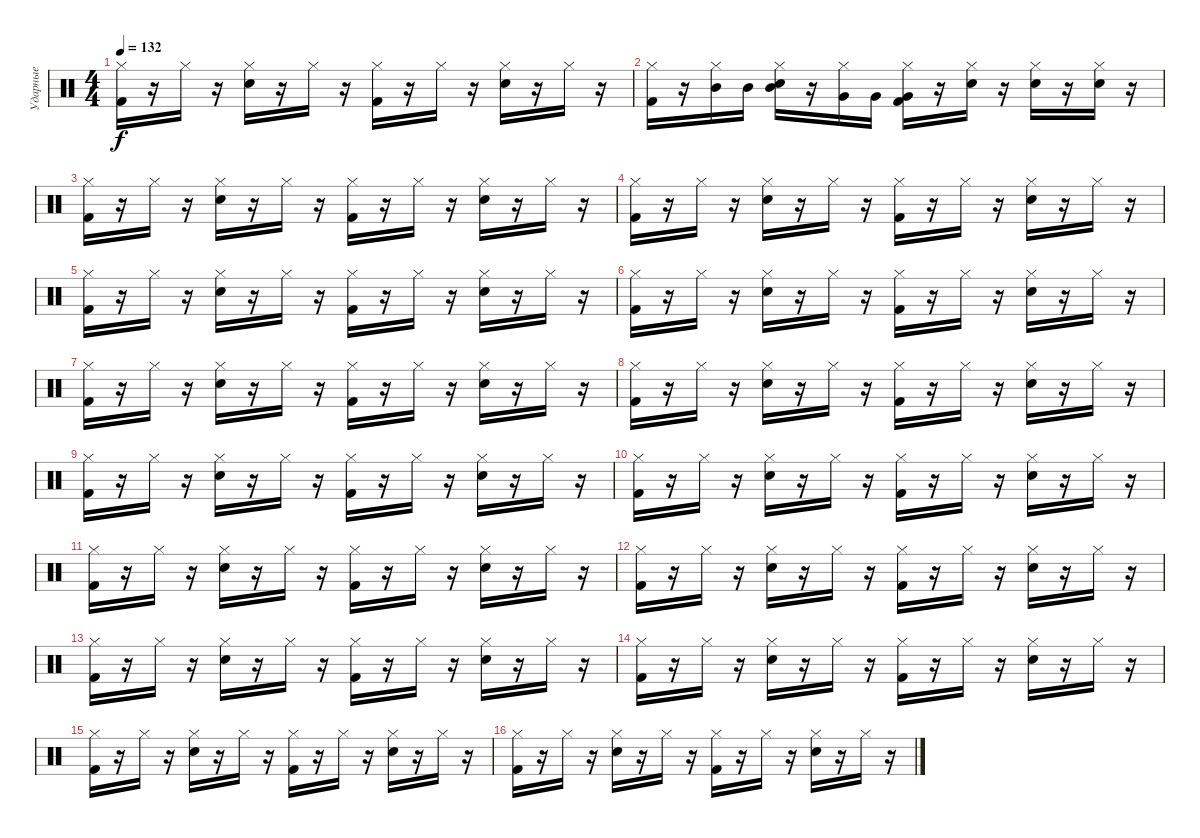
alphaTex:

\track ("Ударные" "Ударные") {instrument percussion}
\staff {score}
\articulation defaults
\ts (4 4)
\tempo 132
\clef neutral
\ks c
("Kick (hit) 2" "Hi-Hat (closed)").16{dy f} r.16 "Hi-Hat (closed)".16 r.16 ("Snare (hit) 2" "Hi-Hat (closed)").16 r.16 "Hi-Hat (closed)".16 r.16 ("Kick (hit) 2" "Hi-Hat (closed)").16 r.16 "Hi-Hat (closed)".16 r.16 ("Snare (hit) 2" "Hi-Hat (closed)").16 r.16 "Hi-Hat (closed)".16 r.16 |
("Kick (hit) 2" "Hi-Hat (closed)").16 r.16 ("Mid Tom (hit)" "Hi-Hat (closed)").16 "Mid Tom (hit)".16 ("Snare (hit) 2" "Mid Tom (hit)" "Hi-Hat (closed)").16 r.16 ("Very Low Tom (hit)" "Hi-Hat (closed)").16 "Very Low Tom (hit)".16 ("Kick (hit) 2" "Very Low Tom (hit)" "Hi-Hat (closed)").16 r.16 ("Snare (hit) 2" "Hi-Hat (closed)").16 r.16 ("Snare (hit) 2" "Hi-Hat (closed)").16 r.16 ("Snare (hit) 2" "Hi-Hat (closed)").16 r.16 |
("Kick (hit) 2" "Hi-Hat (closed)").16 r.16 "Hi-Hat (closed)".16 r.16 ("Snare (hit) 2" "Hi-Hat (closed)").16 r.16 "Hi-Hat (closed)".16 r.16 ("Kick (hit) 2" "Hi-Hat (closed)").16 r.16 "Hi-Hat (closed)".16 r.16 ("Snare (hit) 2" "Hi-Hat (closed)").16 r.16 "Hi-Hat (closed)".16 r.16 |
("Kick (hit) 2" "Hi-Hat (closed)").16 r.16 "Hi-Hat (closed)".16 r.16 ("Snare (hit) 2" "Hi-Hat (closed)").16 r.16 "Hi-Hat (closed)".16 r.16 ("Kick (hit) 2" "Hi-Hat (closed)").16 r.16 "Hi-Hat (closed)".16 r.16 ("Snare (hit) 2" "Hi-Hat (closed)").16 r.16 "Hi-Hat (closed)".16 r.16 |
("Kick (hit) 2" "Hi-Hat (closed)").16 r.16 "Hi-Hat (closed)".16 r.16 ("Snare (hit) 2" "Hi-Hat (closed)").16 r.16 "Hi-Hat (closed)".16 r.16 ("Kick (hit) 2" "Hi-Hat (closed)").16 r.16 "Hi-Hat (closed)".16 r.16 ("Snare (hit) 2" "Hi-Hat (closed)").16 r.16 "Hi-Hat (closed)".16 r.16 |
("Kick (hit) 2" "Hi-Hat (closed)").16 r.16 "Hi-Hat (closed)".16 r.16 ("Snare (hit) 2" "Hi-Hat (closed)").16 r.16 "Hi-Hat (closed)".16 r.16 ("Kick (hit) 2" "Hi-Hat (closed)").16 r.16 "Hi-Hat (closed)".16 r.16 ("Snare (hit) 2" "Hi-Hat (closed)").16 r.16 "Hi-Hat (closed)".16 r.16 |
("Kick (hit) 2" "Hi-Hat (closed)").16 r.16 "Hi-Hat (closed)".16 r.16 ("Snare (hit) 2" "Hi-Hat (closed)").16 r.16 "Hi-Hat (closed)".16 r.16 ("Kick (hit) 2" "Hi-Hat (closed)").16 r.16 "Hi-Hat (closed)".16 r.16 ("Snare (hit) 2" "Hi-Hat (closed)").16 r.16 "Hi-Hat (closed)".16 r.16 |
("Kick (hit) 2" "Hi-Hat (closed)").16 r.16 "Hi-Hat (closed)".16 r.16 ("Snare (hit) 2" "Hi-Hat (closed)").16 r.16 "Hi-Hat (closed)".16 r.16 ("Kick (hit) 2" "Hi-Hat (closed)").16 r.16 "Hi-Hat (closed)".16 r.16 ("Snare (hit) 2" "Hi-Hat (closed)").16 r.16 "Hi-Hat (closed)".16 r.16 |
("Kick (hit) 2" "Hi-Hat (closed)").16 r.16 "Hi-Hat (closed)".16 r.16 ("Snare (hit) 2" "Hi-Hat (closed)").16 r.16 "Hi-Hat (closed)".16 r.16 ("Kick (hit) 2" "Hi-Hat (closed)").16 r.16 "Hi-Hat (closed)".16 r.16 ("Snare (hit) 2" "Hi-Hat (closed)").16 r.16 "Hi-Hat (closed)".16 r.16 |
("Kick (hit) 2" "Hi-Hat (closed)").16 r.16 "Hi-Hat (closed)".16 r.16 ("Snare (hit) 2" "Hi-Hat (closed)").16 r.16 "Hi-Hat (closed)".16 r.16 ("Kick (hit) 2" "Hi-Hat (closed)").16 r.16 "Hi-Hat (closed)".16 r.16 ("Snare (hit) 2" "Hi-Hat (closed)").16 r.16 "Hi-Hat (closed)".16 r.16 |
("Kick (hit) 2" "Hi-Hat (closed)").16 r.16 "Hi-Hat (closed)".16 r.16 ("Snare (hit) 2" "Hi-Hat (closed)").16 r.16 "Hi-Hat (closed)".16 r.16 ("Kick (hit) 2" "Hi-Hat (closed)").16 r.16 "Hi-Hat (closed)".16 r.16 ("Snare (hit) 2" "Hi-Hat (closed)").16 r.16 "Hi-Hat (closed)".16 r.16 |
("Kick (hit) 2" "Hi-Hat (closed)").16 r.16 "Hi-Hat (closed)".16 r.16 ("Snare (hit) 2" "Hi-Hat (closed)").16 r.16 "Hi-Hat (closed)".16 r.16 ("Kick (hit) 2" "Hi-Hat (closed)").16 r.16 "Hi-Hat (closed)".16 r.16 ("Snare (hit) 2" "Hi-Hat (closed)").16 r.16 "Hi-Hat (closed)".16 r.16 |
("Kick (hit) 2" "Hi-Hat (closed)").16 r.16 "Hi-Hat (closed)".16 r.16 ("Snare (hit) 2" "Hi-Hat (closed)").16 r.16 "Hi-Hat (closed)".16 r.16 ("Kick (hit) 2" "Hi-Hat (closed)").16 r.16 "Hi-Hat (closed)".16 r.16 ("Snare (hit) 2" "Hi-Hat (closed)").16 r.16 "Hi-Hat (closed)".16 r.16 |
("Kick (hit) 2" "Hi-Hat (closed)").16 r.16 "Hi-Hat (closed)".16 r.16 ("Snare (hit) 2" "Hi-Hat (closed)").16 r.16 "Hi-Hat (closed)".16 r.16 ("Kick (hit) 2" "Hi-Hat (closed)").16 r.16 "Hi-Hat (closed)".16 r.16 ("Snare (hit) 2" "Hi-Hat (closed)").16 r.16 "Hi-Hat (closed)".16 r.16 |
("Kick (hit) 2" "Hi-Hat (closed)").16 r.16 "Hi-Hat (closed)".16 r.16 ("Snare (hit) 2" "Hi-Hat (closed)").16 r.16 "Hi-Hat (closed)".16 r.16 ("Kick (hit) 2" "Hi-Hat (closed)").16 r.16 "Hi-Hat (closed)".16 r.16 ("Snare (hit) 2" "Hi-Hat (closed)").16 r.16 "Hi-Hat (closed)".16 r.16 |
("Kick (hit) 2" "Hi-Hat (closed)").16 r.16 "Hi-Hat (closed)".16 r.16 ("Snare (hit) 2" "Hi-Hat (closed)").16 r.16 "Hi-Hat (closed)".16 r.16 ("Kick (hit) 2" "Hi-Hat (closed)").16 r.16 "Hi-Hat (closed)".16 r.16 ("Snare (hit) 2" "Hi-Hat (closed)").16 r.16 "Hi-Hat (closed)".16 r.16
